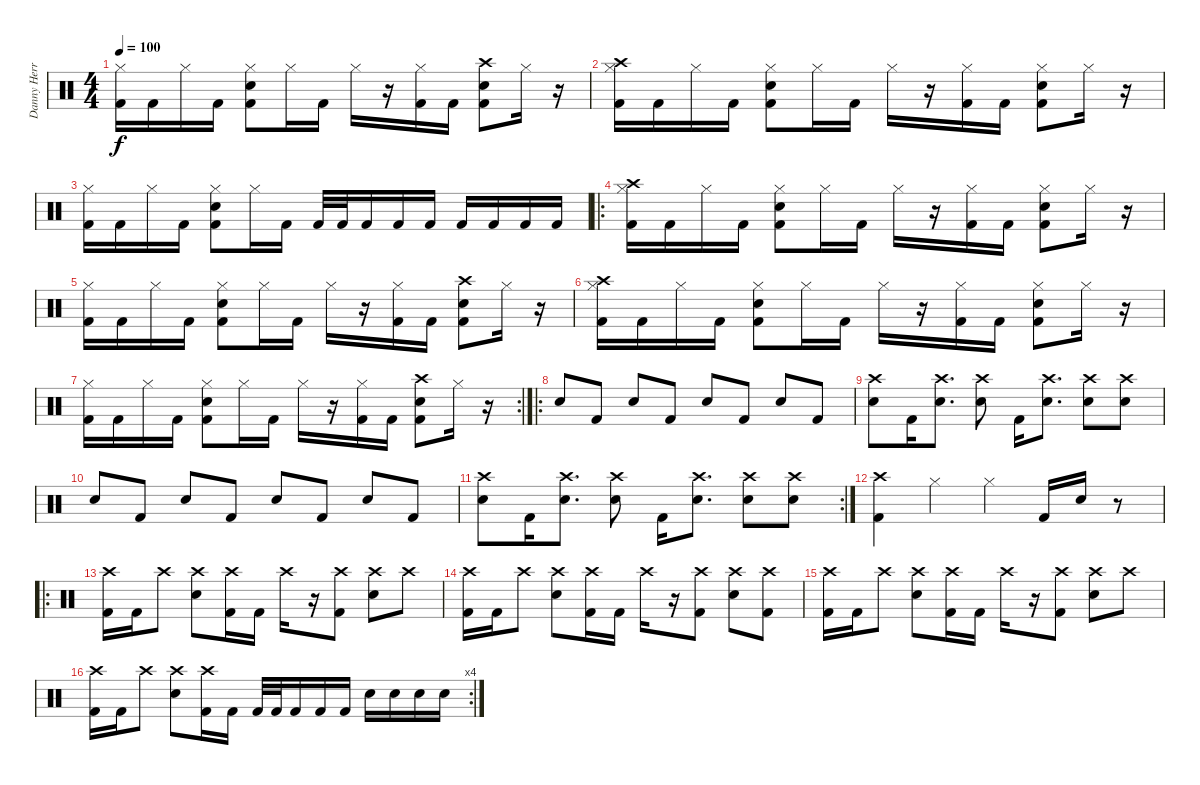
\track ("Danny Herrera" "Danny Herr") {instrument percussion}
\staff {score}
\articulation defaults
\ts (4 4)
\tempo 100
\clef neutral
\ks c
("Hi-Hat (closed)" "Kick (hit) 2").16{dy f} "Kick (hit) 2".16 "Hi-Hat (closed)".16 "Kick (hit) 2".16 ("Hi-Hat (closed)" "Snare (hit) 2" "Kick (hit) 2").8 "Hi-Hat (closed)".16 "Kick (hit) 2".16 "Hi-Hat (closed)".16 r.16 ("Hi-Hat (closed)" "Kick (hit) 2").16 "Kick (hit) 2".16 ("Crash high (hit)" "Snare (hit) 2" "Kick (hit) 2").8 "Hi-Hat (closed)".16 r.16 |
("Crash high (hit)" "Hi-Hat (closed)" "Kick (hit) 2").16 "Kick (hit) 2".16 "Hi-Hat (closed)".16 "Kick (hit) 2".16 ("Hi-Hat (closed)" "Snare (hit) 2" "Kick (hit) 2").8 "Hi-Hat (closed)".16 "Kick (hit) 2".16 "Hi-Hat (closed)".16 r.16 ("Hi-Hat (closed)" "Kick (hit) 2").16 "Kick (hit) 2".16 ("Hi-Hat (closed)" "Snare (hit) 2" "Kick (hit) 2").8 "Hi-Hat (closed)".16 r.16 |
("Hi-Hat (closed)" "Kick (hit) 2").16 "Kick (hit) 2".16 "Hi-Hat (closed)".16 "Kick (hit) 2".16 ("Hi-Hat (closed)" "Snare (hit) 2" "Kick (hit) 2").8 "Hi-Hat (closed)".16 "Kick (hit) 2".16 "Kick (hit) 2".32 "Kick (hit) 2".32 "Kick (hit) 2".16 "Kick (hit) 2".16 "Kick (hit) 2".16 "Kick (hit) 2".16 "Kick (hit) 2".16 "Kick (hit) 2".16 "Kick (hit) 2".16 |
\ro
("Crash high (hit)" "Hi-Hat (closed)" "Kick (hit) 2").16 "Kick (hit) 2".16 "Hi-Hat (closed)".16 "Kick (hit) 2".16 ("Hi-Hat (closed)" "Snare (hit) 2" "Kick (hit) 2").8 "Hi-Hat (closed)".16 "Kick (hit) 2".16 "Hi-Hat (closed)".16 r.16 ("Hi-Hat (closed)" "Kick (hit) 2").16 "Kick (hit) 2".16 ("Hi-Hat (closed)" "Snare (hit) 2" "Kick (hit) 2").8 "Hi-Hat (closed)".16 r.16 |
("Hi-Hat (closed)" "Kick (hit) 2").16 "Kick (hit) 2".16 "Hi-Hat (closed)".16 "Kick (hit) 2".16 ("Hi-Hat (closed)" "Snare (hit) 2" "Kick (hit) 2").8 "Hi-Hat (closed)".16 "Kick (hit) 2".16 "Hi-Hat (closed)".16 r.16 ("Hi-Hat (closed)" "Kick (hit) 2").16 "Kick (hit) 2".16 ("Crash high (hit)" "Snare (hit) 2" "Kick (hit) 2").8 "Hi-Hat (closed)".16 r.16 |
("Crash high (hit)" "Hi-Hat (closed)" "Kick (hit) 2").16 "Kick (hit) 2".16 "Hi-Hat (closed)".16 "Kick (hit) 2".16 ("Hi-Hat (closed)" "Snare (hit) 2" "Kick (hit) 2").8 "Hi-Hat (closed)".16 "Kick (hit) 2".16 "Hi-Hat (closed)".16 r.16 ("Hi-Hat (closed)" "Kick (hit) 2").16 "Kick (hit) 2".16 ("Hi-Hat (closed)" "Snare (hit) 2" "Kick (hit) 2").8 "Hi-Hat (closed)".16 r.16 |
\rc 2
("Hi-Hat (closed)" "Kick (hit) 2").16 "Kick (hit) 2".16 "Hi-Hat (closed)".16 "Kick (hit) 2".16 ("Hi-Hat (closed)" "Snare (hit) 2" "Kick (hit) 2").8 "Hi-Hat (closed)".16 "Kick (hit) 2".16 "Hi-Hat (closed)".16 r.16 ("Hi-Hat (closed)" "Kick (hit) 2").16 "Kick (hit) 2".16 ("Crash high (hit)" "Snare (hit) 2" "Kick (hit) 2").8 "Hi-Hat (closed)".16 r.16 |
\ro "Snare (hit) 2".8 "Kick (hit) 2".8 "Snare (hit) 2".8 "Kick (hit) 2".8 "Snare (hit) 2".8 "Kick (hit) 2".8 "Snare (hit) 2".8 "Kick (hit) 2".8
|
("Crash high (hit)" "Snare (hit) 2").8 "Kick (hit) 2".16 ("Crash high (hit)" "Snare (hit) 2").8{d} ("Crash high (hit)" "Snare (hit) 2").8 "Kick (hit) 2".16 ("Crash high (hit)" "Snare (hit) 2").8{d} ("Crash high (hit)" "Snare (hit) 2").8 ("Crash high (hit)" "Snare (hit) 2").8 |
"Snare (hit) 2".8 "Kick (hit) 2".8 "Snare (hit) 2".8 "Kick (hit) 2".8 "Snare (hit) 2".8 "Kick (hit) 2".8 "Snare (hit) 2".8 "Kick (hit) 2".8 |
\rc 2
("Crash high (hit)" "Snare (hit) 2").8 "Kick (hit) 2".16 ("Crash high (hit)" "Snare (hit) 2").8{d} ("Crash high (hit)" "Snare (hit) 2").8 "Kick (hit) 2".16 ("Crash high (hit)" "Snare (hit) 2").8{d} ("Crash high (hit)" "Snare (hit) 2").8 ("Crash high (hit)" "Snare (hit) 2").8 |
("Crash high (hit)" "Kick (hit) 2").4 "Hi-Hat (closed)".4 "Hi-Hat (closed)".4 "Kick (hit) 2".16 "Snare (hit) 2".16 r.8 |
\ro
("Crash high (hit)" "Kick (hit) 2").16 "Kick (hit) 2".16 "Crash high (hit)".8 ("Crash high (hit)" "Snare (hit) 2").8 ("Crash high (hit)" "Kick (hit) 2").16 "Kick (hit) 2".16 "Crash high (hit)".16 r.16 ("Crash high (hit)" "Kick (hit) 2").8 ("Crash high (hit)" "Snare (hit) 2").8 "Crash high (hit)".8 |
("Crash high (hit)" "Kick (hit) 2").16 "Kick (hit) 2".16 "Crash high (hit)".8 ("Crash high (hit)" "Snare (hit) 2").8 ("Crash high (hit)" "Kick (hit) 2").16 "Kick (hit) 2".16 "Crash high (hit)".16 r.16 ("Crash high (hit)" "Kick (hit) 2").8 ("Crash high (hit)" "Snare (hit) 2").8 ("Crash high (hit)" "Kick (hit) 2").8 |
("Crash high (hit)" "Kick (hit) 2").16 "Kick (hit) 2".16 "Crash high (hit)".8 ("Crash high (hit)" "Snare (hit) 2").8 ("Crash high (hit)" "Kick (hit) 2").16 "Kick (hit) 2".16 "Crash high (hit)".16 r.16 ("Crash high (hit)" "Kick (hit) 2").8 ("Crash high (hit)" "Snare (hit) 2").8 "Crash high (hit)".8 |
\rc 4
("Crash high (hit)" "Kick (hit) 2").16 "Kick (hit) 2".16 "Crash high (hit)".8 ("Crash high (hit)" "Snare (hit) 2").8 ("Crash high (hit)" "Kick (hit) 2").16 "Kick (hit) 2".16 "Kick (hit) 2".32 "Kick (hit) 2".32 "Kick (hit) 2".16 "Kick (hit) 2".16 "Kick (hit) 2".16 "Snare (hit) 2".16 "Snare (hit) 2".16 "Snare (hit) 2".16 "Snare (hit) 2".16
